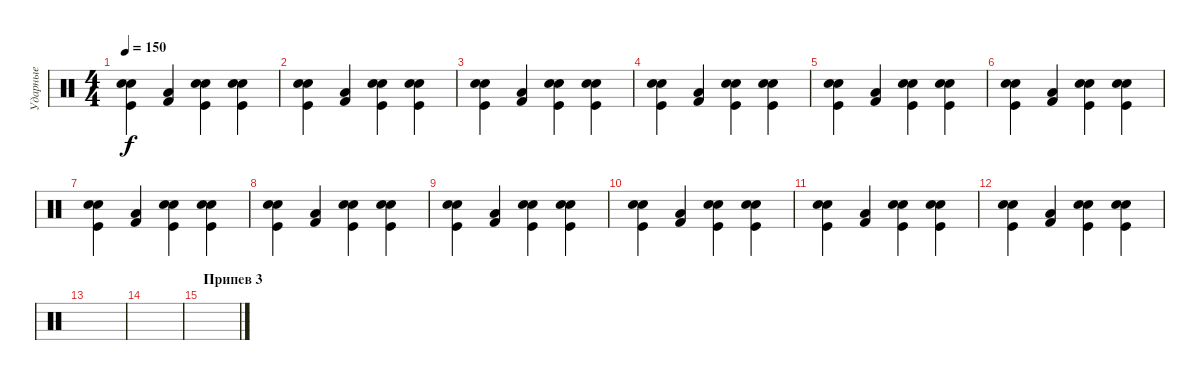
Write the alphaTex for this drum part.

\track ("Ударные" "Ударные") {instrument percussion}
\staff {score}
\articulation defaults
\ts (4 4)
\tempo 150
\clef neutral
\ks c
("Electric Snare (hit)" "Kick (hit)" "Snare (hit) 2").4{dy f} ("Kick (hit) 2" "Low Tom (hit)").4 ("Electric Snare (hit)" "Kick (hit)" "Snare (hit) 2").4 ("Electric Snare (hit)" "Kick (hit)" "Snare (hit) 2").4 |
("Electric Snare (hit)" "Kick (hit)" "Snare (hit) 2").4 ("Kick (hit) 2" "Low Tom (hit)").4 ("Electric Snare (hit)" "Kick (hit)" "Snare (hit) 2").4 ("Electric Snare (hit)" "Kick (hit)" "Snare (hit) 2").4 |
("Electric Snare (hit)" "Kick (hit)" "Snare (hit) 2").4 ("Kick (hit) 2" "Low Tom (hit)").4 ("Electric Snare (hit)" "Kick (hit)" "Snare (hit) 2").4 ("Electric Snare (hit)" "Kick (hit)" "Snare (hit) 2").4 |
("Electric Snare (hit)" "Kick (hit)" "Snare (hit) 2").4 ("Kick (hit) 2" "Low Tom (hit)").4 ("Electric Snare (hit)" "Kick (hit)" "Snare (hit) 2").4 ("Electric Snare (hit)" "Kick (hit)" "Snare (hit) 2").4 |
("Electric Snare (hit)" "Kick (hit)" "Snare (hit) 2").4 ("Kick (hit) 2" "Low Tom (hit)").4 ("Electric Snare (hit)" "Kick (hit)" "Snare (hit) 2").4 ("Electric Snare (hit)" "Kick (hit)" "Snare (hit) 2").4 |
("Electric Snare (hit)" "Kick (hit)" "Snare (hit) 2").4 ("Kick (hit) 2" "Low Tom (hit)").4 ("Electric Snare (hit)" "Kick (hit)" "Snare (hit) 2").4 ("Electric Snare (hit)" "Kick (hit)" "Snare (hit) 2").4 |
("Electric Snare (hit)" "Kick (hit)" "Snare (hit) 2").4 ("Kick (hit) 2" "Low Tom (hit)").4 ("Electric Snare (hit)" "Kick (hit)" "Snare (hit) 2").4 ("Electric Snare (hit)" "Kick (hit)" "Snare (hit) 2").4 |
("Electric Snare (hit)" "Kick (hit)" "Snare (hit) 2").4 ("Kick (hit) 2" "Low Tom (hit)").4 ("Electric Snare (hit)" "Kick (hit)" "Snare (hit) 2").4 ("Electric Snare (hit)" "Kick (hit)" "Snare (hit) 2").4 |
("Electric Snare (hit)" "Kick (hit)" "Snare (hit) 2").4 ("Kick (hit) 2" "Low Tom (hit)").4 ("Electric Snare (hit)" "Kick (hit)" "Snare (hit) 2").4 ("Electric Snare (hit)" "Kick (hit)" "Snare (hit) 2").4 |
("Electric Snare (hit)" "Kick (hit)" "Snare (hit) 2").4 ("Kick (hit) 2" "Low Tom (hit)").4 ("Electric Snare (hit)" "Kick (hit)" "Snare (hit) 2").4 ("Electric Snare (hit)" "Kick (hit)" "Snare (hit) 2").4 |
("Electric Snare (hit)" "Kick (hit)" "Snare (hit) 2").4 ("Kick (hit) 2" "Low Tom (hit)").4 ("Electric Snare (hit)" "Kick (hit)" "Snare (hit) 2").4 ("Electric Snare (hit)" "Kick (hit)" "Snare (hit) 2").4 |
("Electric Snare (hit)" "Kick (hit)" "Snare (hit) 2").4 ("Kick (hit) 2" "Low Tom (hit)").4 ("Electric Snare (hit)" "Kick (hit)" "Snare (hit) 2").4 ("Electric Snare (hit)" "Kick (hit)" "Snare (hit) 2").4 |
|
|
\section ("" "Припев 3")
